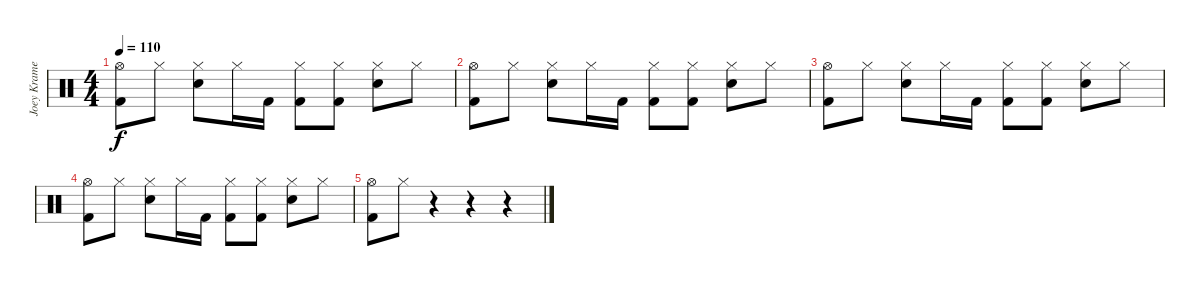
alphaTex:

\track ("Joey Kramer - Drums" "Joey Krame") {instrument percussion}
\staff {score}
\articulation defaults
\ts (4 4)
\tempo 110
\clef neutral
\ks c
("Hi-Hat (open)" "Kick (hit) 2").8{dy f} "Hi-Hat (closed)".8 ("Hi-Hat (closed)" "Electric Snare (hit)").8 "Hi-Hat (closed)".16 "Kick (hit) 2".16 ("Hi-Hat (closed)" "Kick (hit) 2").8 ("Hi-Hat (closed)" "Kick (hit) 2").8 ("Hi-Hat (closed)" "Electric Snare (hit)").8 "Hi-Hat (closed)".8 |
("Hi-Hat (open)" "Kick (hit) 2").8 "Hi-Hat (closed)".8 ("Hi-Hat (closed)" "Electric Snare (hit)").8 "Hi-Hat (closed)".16 "Kick (hit) 2".16 ("Hi-Hat (closed)" "Kick (hit) 2").8 ("Hi-Hat (closed)" "Kick (hit) 2").8 ("Hi-Hat (closed)" "Electric Snare (hit)").8 "Hi-Hat (closed)".8 |
("Hi-Hat (open)" "Kick (hit) 2").8 "Hi-Hat (closed)".8 ("Hi-Hat (closed)" "Electric Snare (hit)").8 "Hi-Hat (closed)".16 "Kick (hit) 2".16 ("Hi-Hat (closed)" "Kick (hit) 2").8 ("Hi-Hat (closed)" "Kick (hit) 2").8 ("Hi-Hat (closed)" "Electric Snare (hit)").8 "Hi-Hat (closed)".8 |
("Hi-Hat (open)" "Kick (hit) 2").8 "Hi-Hat (closed)".8 ("Hi-Hat (closed)" "Electric Snare (hit)").8 "Hi-Hat (closed)".16 "Kick (hit) 2".16 ("Hi-Hat (closed)" "Kick (hit) 2").8 ("Hi-Hat (closed)" "Kick (hit) 2").8 ("Hi-Hat (closed)" "Electric Snare (hit)").8 "Hi-Hat (closed)".8 |
("Hi-Hat (open)" "Kick (hit) 2").8 "Hi-Hat (closed)".8 r.4 r.4 r.4
